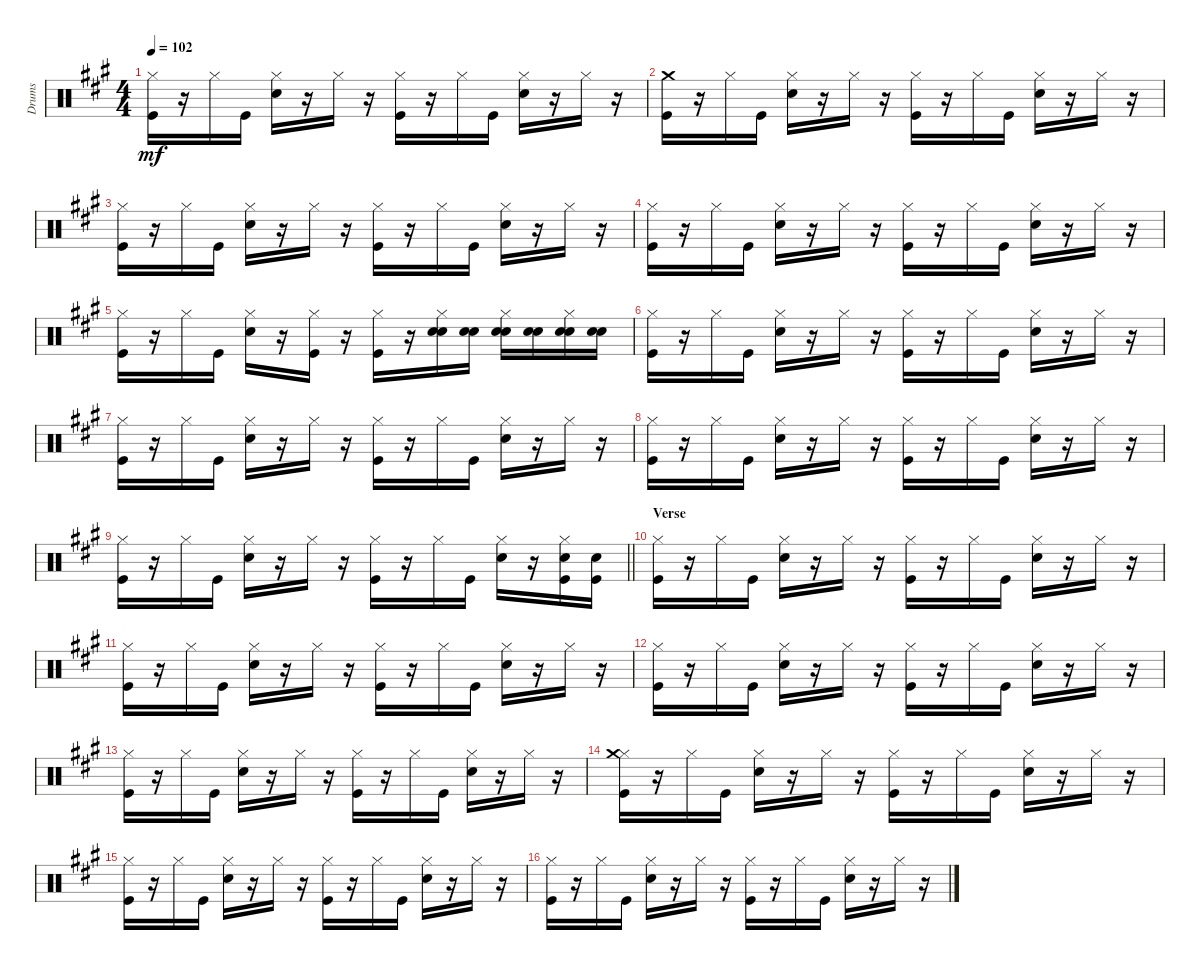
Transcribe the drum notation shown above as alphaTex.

\track ("Drums" "Drums") {instrument percussion}
\staff {score}
\articulation defaults
\ts (4 4)
\tempo 102
\clef neutral
\ks f#minor
("Hi-Hat (closed)" "Kick (hit)").16{dy mf} r.16 "Hi-Hat (closed)".16 "Kick (hit)".16 ("Hi-Hat (closed)" "Snare (hit) 2").16 r.16 "Hi-Hat (closed)".16 r.16 ("Hi-Hat (closed)" "Kick (hit)").16 r.16 "Hi-Hat (closed)".16 "Kick (hit)".16 ("Hi-Hat (closed)" "Snare (hit) 2").16 r.16 "Hi-Hat (closed)".16 r.16 |
("Crash medium (hit)" "Kick (hit)").16 r.16 "Hi-Hat (closed)".16 "Kick (hit)".16 ("Hi-Hat (closed)" "Snare (hit) 2").16 r.16 "Hi-Hat (closed)".16 r.16 ("Hi-Hat (closed)" "Kick (hit)").16 r.16 "Hi-Hat (closed)".16 "Kick (hit)".16 ("Hi-Hat (closed)" "Snare (hit) 2").16 r.16 "Hi-Hat (closed)".16 r.16 |
("Hi-Hat (closed)" "Kick (hit)").16 r.16 "Hi-Hat (closed)".16 "Kick (hit)".16 ("Hi-Hat (closed)" "Snare (hit) 2").16 r.16 "Hi-Hat (closed)".16 r.16 ("Hi-Hat (closed)" "Kick (hit)").16 r.16 "Hi-Hat (closed)".16 "Kick (hit)".16 ("Hi-Hat (closed)" "Snare (hit) 2").16 r.16 "Hi-Hat (closed)".16 r.16 |
("Hi-Hat (closed)" "Kick (hit)").16 r.16 "Hi-Hat (closed)".16 "Kick (hit)".16 ("Hi-Hat (closed)" "Snare (hit) 2").16 r.16 "Hi-Hat (closed)".16 r.16 ("Hi-Hat (closed)" "Kick (hit)").16 r.16 "Hi-Hat (closed)".16 "Kick (hit)".16 ("Hi-Hat (closed)" "Snare (hit) 2").16 r.16 "Hi-Hat (closed)".16 r.16 |
("Hi-Hat (closed)" "Kick (hit)").16 r.16 "Hi-Hat (closed)".16 "Kick (hit)".16 ("Hi-Hat (closed)" "Snare (hit) 2").16 r.16 ("Hi-Hat (closed)" "Kick (hit)").16 r.16 ("Hi-Hat (closed)" "Kick (hit)").16 r.16 ("Hi-Hat (closed)" "Snare (hit) 2" "Electric Snare (hit)").16 ("Snare (hit) 2" "Electric Snare (hit)").16 ("Hi-Hat (closed)" "Snare (hit) 2" "Electric Snare (hit)").16 ("Snare (hit) 2" "Electric Snare (hit)").16 ("Hi-Hat (closed)" "Snare (hit) 2" "Electric Snare (hit)").16 ("Snare (hit) 2" "Electric Snare (hit)").16 |
("Hi-Hat (closed)" "Kick (hit)").16 r.16 "Hi-Hat (closed)".16 "Kick (hit)".16 ("Hi-Hat (closed)" "Snare (hit) 2").16 r.16 "Hi-Hat (closed)".16 r.16 ("Hi-Hat (closed)" "Kick (hit)").16 r.16 "Hi-Hat (closed)".16 "Kick (hit)".16 ("Hi-Hat (closed)" "Snare (hit) 2").16 r.16 "Hi-Hat (closed)".16 r.16 |
("Hi-Hat (closed)" "Kick (hit)").16 r.16 "Hi-Hat (closed)".16 "Kick (hit)".16 ("Hi-Hat (closed)" "Snare (hit) 2").16 r.16 "Hi-Hat (closed)".16 r.16 ("Hi-Hat (closed)" "Kick (hit)").16 r.16 "Hi-Hat (closed)".16 "Kick (hit)".16 ("Hi-Hat (closed)" "Snare (hit) 2").16 r.16 "Hi-Hat (closed)".16 r.16 |
("Hi-Hat (closed)" "Kick (hit)").16 r.16 "Hi-Hat (closed)".16 "Kick (hit)".16 ("Hi-Hat (closed)" "Snare (hit) 2").16 r.16 "Hi-Hat (closed)".16 r.16 ("Hi-Hat (closed)" "Kick (hit)").16 r.16 "Hi-Hat (closed)".16 "Kick (hit)".16 ("Hi-Hat (closed)" "Snare (hit) 2").16 r.16 "Hi-Hat (closed)".16 r.16 |
\barLineRight lightlight
("Hi-Hat (closed)" "Kick (hit)").16 r.16 "Hi-Hat (closed)".16 "Kick (hit)".16 ("Hi-Hat (closed)" "Snare (hit) 2").16 r.16 "Hi-Hat (closed)".16 r.16 ("Hi-Hat (closed)" "Kick (hit)").16 r.16 "Hi-Hat (closed)".16 "Kick (hit)".16 ("Hi-Hat (closed)" "Snare (hit) 2").16 r.16 ("Hi-Hat (closed)" "Snare (hit) 2" "Kick (hit)").16 ("Snare (hit) 2" "Kick (hit)").16 |
\section ("" "Verse")
("Hi-Hat (closed)" "Kick (hit)").16 r.16 "Hi-Hat (closed)".16 "Kick (hit)".16 ("Hi-Hat (closed)" "Snare (hit) 2").16 r.16 "Hi-Hat (closed)".16 r.16 ("Hi-Hat (closed)" "Kick (hit)").16 r.16 "Hi-Hat (closed)".16 "Kick (hit)".16 ("Hi-Hat (closed)" "Snare (hit) 2").16 r.16 "Hi-Hat (closed)".16 r.16 |
("Hi-Hat (closed)" "Kick (hit)").16 r.16 "Hi-Hat (closed)".16 "Kick (hit)".16 ("Hi-Hat (closed)" "Snare (hit) 2").16 r.16 "Hi-Hat (closed)".16 r.16 ("Hi-Hat (closed)" "Kick (hit)").16 r.16 "Hi-Hat (closed)".16 "Kick (hit)".16 ("Hi-Hat (closed)" "Snare (hit) 2").16 r.16 "Hi-Hat (closed)".16 r.16 |
("Hi-Hat (closed)" "Kick (hit)").16 r.16 "Hi-Hat (closed)".16 "Kick (hit)".16 ("Hi-Hat (closed)" "Snare (hit) 2").16 r.16 "Hi-Hat (closed)".16 r.16 ("Hi-Hat (closed)" "Kick (hit)").16 r.16 "Hi-Hat (closed)".16 "Kick (hit)".16 ("Hi-Hat (closed)" "Snare (hit) 2").16 r.16 "Hi-Hat (closed)".16 r.16 |
("Hi-Hat (closed)" "Kick (hit)").16 r.16 "Hi-Hat (closed)".16 "Kick (hit)".16 ("Hi-Hat (closed)" "Snare (hit) 2").16 r.16 "Hi-Hat (closed)".16 r.16 ("Hi-Hat (closed)" "Kick (hit)").16 r.16 "Hi-Hat (closed)".16 "Kick (hit)".16 ("Hi-Hat (closed)" "Snare (hit) 2").16 r.16 "Hi-Hat (closed)".16 r.16 |
("Hi-Hat (closed)" "Crash medium (hit)" "Kick (hit)").16 r.16 "Hi-Hat (closed)".16 "Kick (hit)".16 ("Hi-Hat (closed)" "Snare (hit) 2").16 r.16 "Hi-Hat (closed)".16 r.16 ("Hi-Hat (closed)" "Kick (hit)").16 r.16 "Hi-Hat (closed)".16 "Kick (hit)".16 ("Hi-Hat (closed)" "Snare (hit) 2").16 r.16 "Hi-Hat (closed)".16 r.16 |
("Hi-Hat (closed)" "Kick (hit)").16 r.16 "Hi-Hat (closed)".16 "Kick (hit)".16 ("Hi-Hat (closed)" "Snare (hit) 2").16 r.16 "Hi-Hat (closed)".16 r.16 ("Hi-Hat (closed)" "Kick (hit)").16 r.16 "Hi-Hat (closed)".16 "Kick (hit)".16 ("Hi-Hat (closed)" "Snare (hit) 2").16 r.16 "Hi-Hat (closed)".16 r.16 |
("Hi-Hat (closed)" "Kick (hit)").16 r.16 "Hi-Hat (closed)".16 "Kick (hit)".16 ("Hi-Hat (closed)" "Snare (hit) 2").16 r.16 "Hi-Hat (closed)".16 r.16 ("Hi-Hat (closed)" "Kick (hit)").16 r.16 "Hi-Hat (closed)".16 "Kick (hit)".16 ("Hi-Hat (closed)" "Snare (hit) 2").16 r.16 "Hi-Hat (closed)".16 r.16
